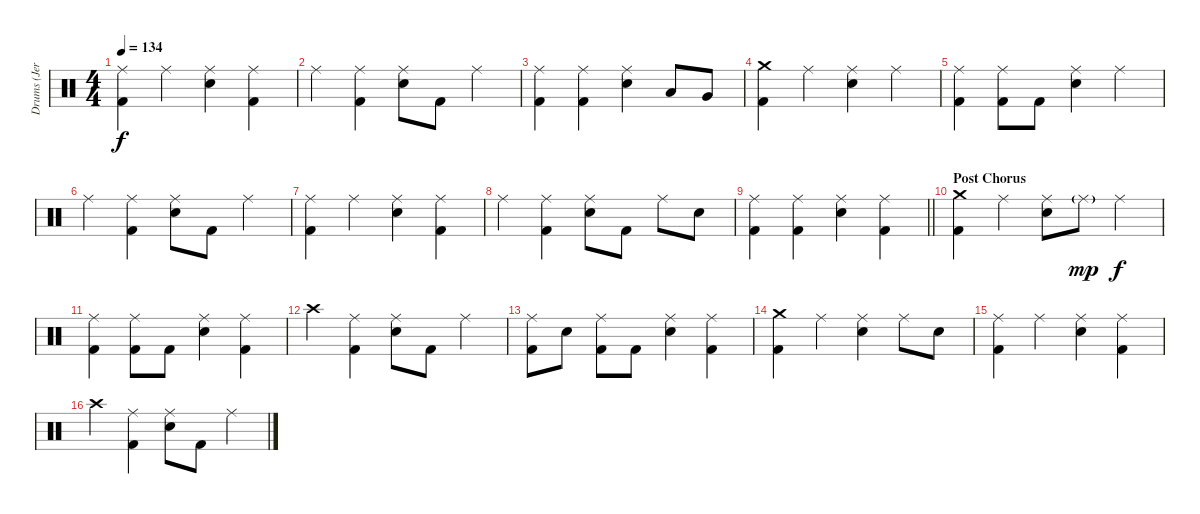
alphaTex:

\track ("Drums (Jeremy Taggart)" "Drums (Jer") {instrument percussion}
\staff
\articulation defaults
\ts (4 4)
\tempo 134
\clef neutral
\ks c
("Ride (middle)" "Kick (hit) 2").4{dy f} "Ride (middle)".4 ("Ride (middle)" "Snare (hit) 2").4 ("Ride (middle)" "Kick (hit) 2").4 |
"Ride (middle)".4 ("Ride (middle)" "Kick (hit) 2").4 ("Ride (middle)" "Snare (hit) 2").8 "Kick (hit) 2".8 "Ride (middle)".4 |
("Ride (middle)" "Kick (hit) 2").4 ("Ride (middle)" "Kick (hit) 2").4 ("Ride (middle)" "Snare (hit) 2").4 "Low Tom (hit)".8 "Very Low Tom (hit)".8 |
("Crash medium (hit)" "Kick (hit) 2").4 "Ride (middle)".4 ("Ride (middle)" "Snare (hit) 2").4 "Ride (middle)".4 |
("Ride (middle)" "Kick (hit) 2").4 ("Ride (middle)" "Kick (hit) 2").8 "Kick (hit) 2".8 ("Ride (middle)" "Snare (hit) 2").4 "Ride (middle)".4 |
"Ride (middle)".4 ("Ride (middle)" "Kick (hit) 2").4 ("Ride (middle)" "Snare (hit) 2").8 "Kick (hit) 2".8 "Ride (middle)".4 |
("Ride (middle)" "Kick (hit) 2").4 "Ride (middle)".4 ("Ride (middle)" "Snare (hit) 2").4 ("Ride (middle)" "Kick (hit) 2").4 |
"Ride (middle)".4 ("Ride (middle)" "Kick (hit) 2").4 ("Ride (middle)" "Snare (hit) 2").8 "Kick (hit) 2".8 "Ride (middle)".8 "Snare (hit) 2".8 |
\barLineRight lightlight
("Ride (middle)" "Kick (hit) 2").4 ("Ride (middle)" "Kick (hit) 2").4 ("Ride (middle)" "Snare (hit) 2").4 ("Ride (middle)" "Kick (hit) 2").4 |
\section ("" "Post Chorus")
("Crash medium (hit)" "Kick (hit) 2").4 "Ride (middle)".4 ("Ride (middle)" "Snare (hit) 2").8 "Ride (middle)"{g}.8{dy mp} "Ride (middle)".4{dy f} |
("Ride (middle)" "Kick (hit) 2").4 ("Ride (middle)" "Kick (hit) 2").8 "Kick (hit) 2".8 ("Ride (middle)" "Snare (hit) 2").4 ("Ride (middle)" "Kick (hit) 2").4 |
"Crash high (hit)".4 ("Ride (middle)" "Kick (hit) 2").4 ("Ride (middle)" "Snare (hit) 2").8 "Kick (hit) 2".8 "Ride (middle)".4 |
("Ride (middle)" "Kick (hit) 2").8 "Snare (hit) 2".8 ("Ride (middle)" "Kick (hit) 2").8 "Kick (hit) 2".8 ("Ride (middle)" "Snare (hit) 2").4 ("Ride (middle)" "Kick (hit) 2").4 |
("Crash medium (hit)" "Kick (hit) 2").4 "Ride (middle)".4 ("Ride (middle)" "Snare (hit) 2").4 "Ride (middle)".8 "Snare (hit) 2".8 |
("Ride (middle)" "Kick (hit) 2").4 "Ride (middle)".4 ("Ride (middle)" "Snare (hit) 2").4 ("Ride (middle)" "Kick (hit) 2").4 |
"Crash high (hit)".4 ("Ride (middle)" "Kick (hit) 2").4 ("Ride (middle)" "Snare (hit) 2").8 "Kick (hit) 2".8 "Ride (middle)".4
